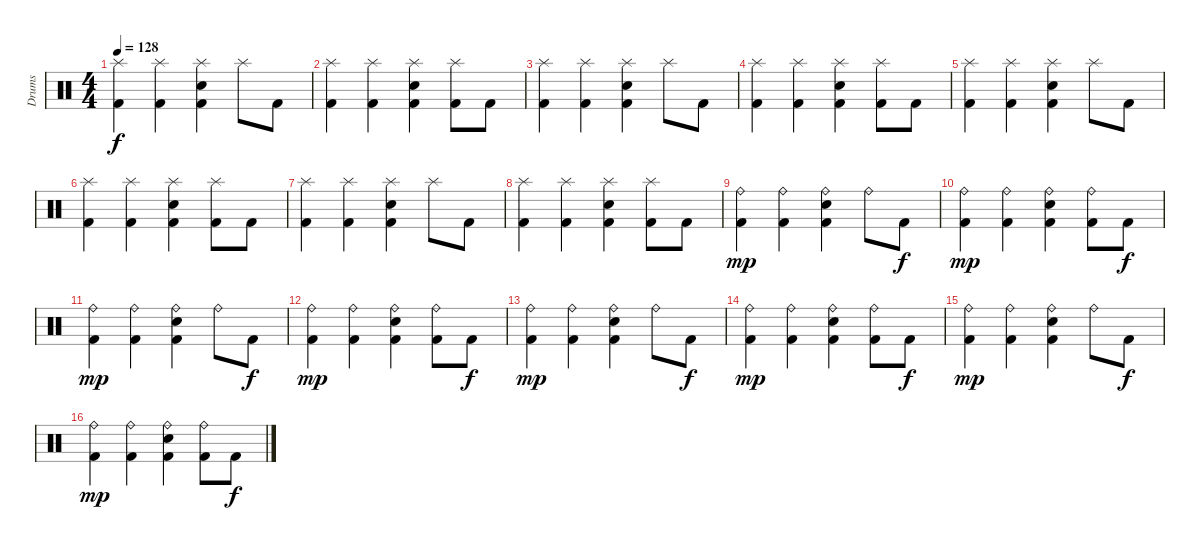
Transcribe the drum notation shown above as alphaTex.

\track ("Drums" "Drums") {instrument percussion}
\staff {score}
\articulation defaults
\ts (4 4)
\tempo 128
\clef neutral
\ks c
("Splash (hit)" "Kick (hit) 2").4{dy f} ("Splash (hit)" "Kick (hit) 2").4 ("Splash (hit)" "Electric Snare (hit)" "Kick (hit) 2").4 "Splash (hit)".8 "Kick (hit) 2".8 |
("Splash (hit)" "Kick (hit) 2").4 ("Splash (hit)" "Kick (hit) 2").4 ("Splash (hit)" "Electric Snare (hit)" "Kick (hit) 2").4 ("Splash (hit)" "Kick (hit) 2").8 "Kick (hit) 2".8 |
("Splash (hit)" "Kick (hit) 2").4 ("Splash (hit)" "Kick (hit) 2").4 ("Splash (hit)" "Electric Snare (hit)" "Kick (hit) 2").4 "Splash (hit)".8 "Kick (hit) 2".8 |
("Splash (hit)" "Kick (hit) 2").4 ("Splash (hit)" "Kick (hit) 2").4 ("Splash (hit)" "Electric Snare (hit)" "Kick (hit) 2").4 ("Splash (hit)" "Kick (hit) 2").8 "Kick (hit) 2".8 |
("Splash (hit)" "Kick (hit) 2").4 ("Splash (hit)" "Kick (hit) 2").4 ("Splash (hit)" "Electric Snare (hit)" "Kick (hit) 2").4 "Splash (hit)".8 "Kick (hit) 2".8 |
("Splash (hit)" "Kick (hit) 2").4 ("Splash (hit)" "Kick (hit) 2").4 ("Splash (hit)" "Electric Snare (hit)" "Kick (hit) 2").4 ("Splash (hit)" "Kick (hit) 2").8 "Kick (hit) 2".8 |
("Splash (hit)" "Kick (hit) 2").4 ("Splash (hit)" "Kick (hit) 2").4 ("Splash (hit)" "Electric Snare (hit)" "Kick (hit) 2").4 "Splash (hit)".8 "Kick (hit) 2".8 |
("Splash (hit)" "Kick (hit) 2").4 ("Splash (hit)" "Kick (hit) 2").4 ("Splash (hit)" "Electric Snare (hit)" "Kick (hit) 2").4 ("Splash (hit)" "Kick (hit) 2").8 "Kick (hit) 2".8 |
("Ride (bell)" "Kick (hit) 2").4{dy mp} ("Ride (bell)" "Kick (hit) 2").4 ("Ride (bell)" "Electric Snare (hit)" "Kick (hit) 2").4 "Ride (bell)".8 "Kick (hit) 2".8{dy f} |
("Ride (bell)" "Kick (hit) 2").4{dy mp} ("Ride (bell)" "Kick (hit) 2").4 ("Ride (bell)" "Electric Snare (hit)" "Kick (hit) 2").4 ("Ride (bell)" "Kick (hit) 2").8 "Kick (hit) 2".8{dy f} |
("Ride (bell)" "Kick (hit) 2").4{dy mp} ("Ride (bell)" "Kick (hit) 2").4 ("Ride (bell)" "Electric Snare (hit)" "Kick (hit) 2").4 "Ride (bell)".8 "Kick (hit) 2".8{dy f} |
("Ride (bell)" "Kick (hit) 2").4{dy mp} ("Ride (bell)" "Kick (hit) 2").4 ("Ride (bell)" "Electric Snare (hit)" "Kick (hit) 2").4 ("Ride (bell)" "Kick (hit) 2").8 "Kick (hit) 2".8{dy f} |
("Ride (bell)" "Kick (hit) 2").4{dy mp} ("Ride (bell)" "Kick (hit) 2").4 ("Ride (bell)" "Electric Snare (hit)" "Kick (hit) 2").4 "Ride (bell)".8 "Kick (hit) 2".8{dy f} |
("Ride (bell)" "Kick (hit) 2").4{dy mp} ("Ride (bell)" "Kick (hit) 2").4 ("Ride (bell)" "Electric Snare (hit)" "Kick (hit) 2").4 ("Ride (bell)" "Kick (hit) 2").8 "Kick (hit) 2".8{dy f} |
("Ride (bell)" "Kick (hit) 2").4{dy mp} ("Ride (bell)" "Kick (hit) 2").4 ("Ride (bell)" "Electric Snare (hit)" "Kick (hit) 2").4 "Ride (bell)".8 "Kick (hit) 2".8{dy f} |
("Ride (bell)" "Kick (hit) 2").4{dy mp} ("Ride (bell)" "Kick (hit) 2").4 ("Ride (bell)" "Electric Snare (hit)" "Kick (hit) 2").4 ("Ride (bell)" "Kick (hit) 2").8 "Kick (hit) 2".8{dy f}
